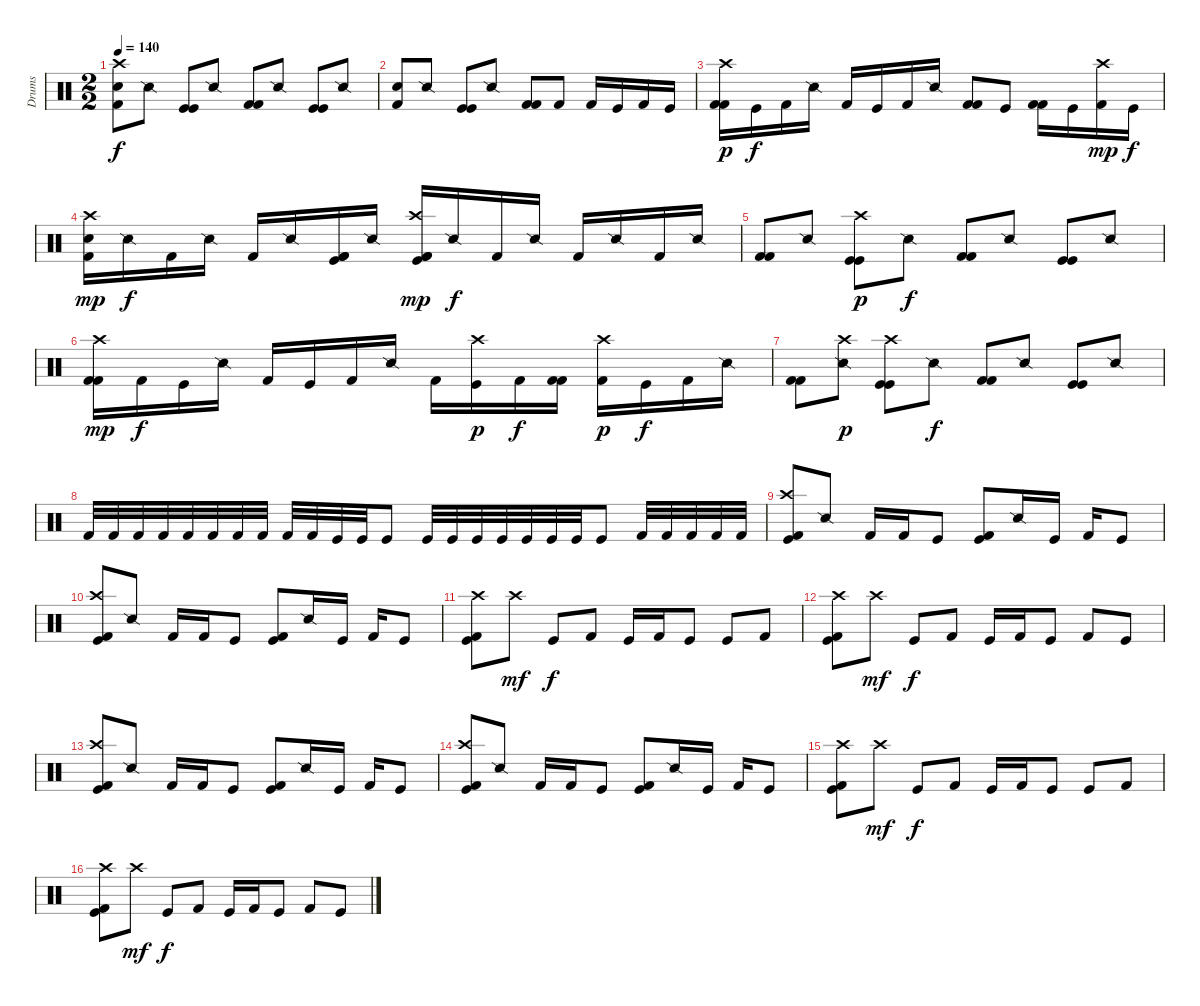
\track ("Drums" "Drums") {instrument percussion}
\staff {score}
\articulation defaults
\ts (2 2)
\tempo 140
\clef neutral
\ks c
("Kick (hit) 2" "Snare (hit) 2" "Crash high (hit)").8{dy f} "Snare (side stick) 2".8 ("Kick (hit)" "Kick (hit)").8 "Snare (side stick) 2".8 ("Kick (hit) 2" "Kick (hit) 2").8 "Snare (side stick) 2".8 ("Kick (hit)" "Kick (hit)").8 "Snare (side stick) 2".8 |
("Kick (hit) 2" "Snare (hit) 2").8 "Snare (side stick) 2".8 ("Kick (hit)" "Kick (hit)").8 "Snare (side stick) 2".8 ("Kick (hit) 2" "Kick (hit) 2").8 "Kick (hit) 2".8 "Kick (hit) 2".16 "Kick (hit)".16 "Kick (hit) 2".16 "Kick (hit)".16 |
("Kick (hit) 2" "Kick (hit) 2" "Crash high (hit)").16{dy p} "Kick (hit)".16{dy f} "Kick (hit) 2".16 "Snare (side stick) 2".16 "Kick (hit) 2".16 "Kick (hit)".16 "Kick (hit) 2".16 "Snare (side stick) 2".16 ("Kick (hit) 2" "Kick (hit) 2").8 "Kick (hit)".8 ("Kick (hit) 2" "Kick (hit) 2").16 "Kick (hit)".16 ("Kick (hit) 2" "Crash high (hit)").16{dy mp} "Kick (hit)".16{dy f} |
("Kick (hit) 2" "Snare (hit) 2" "Crash high (hit)").16{dy mp} "Snare (side stick) 2".16{dy f} "Kick (hit) 2".16 "Snare (side stick) 2".16 "Kick (hit) 2".16 "Snare (side stick) 2".16 ("Kick (hit) 2" "Kick (hit) 2" "Kick (hit)").16 "Snare (side stick) 2".16 ("Kick (hit) 2" "Kick (hit) 2" "Kick (hit)" "Crash high (hit)").16{dy mp} "Snare (side stick) 2".16{dy f} "Kick (hit) 2".16 "Snare (side stick) 2".16 "Kick (hit) 2".16 "Snare (side stick) 2".16 "Kick (hit) 2".16 "Snare (side stick) 2".16 |
("Kick (hit) 2" "Kick (hit) 2").8 "Snare (side stick) 2".8 ("Kick (hit)" "Kick (hit)" "Crash high (hit)").8{dy p} "Snare (side stick) 2".8{dy f} ("Kick (hit) 2" "Kick (hit) 2").8 "Snare (side stick) 2".8 ("Kick (hit)" "Kick (hit)").8 "Snare (side stick) 2".8 |
("Kick (hit) 2" "Kick (hit) 2" "Crash high (hit)").16{dy mp} "Kick (hit) 2".16{dy f} "Kick (hit)".16 "Snare (side stick) 2".16 "Kick (hit) 2".16 "Kick (hit)".16 "Kick (hit) 2".16 "Snare (side stick) 2".16 "Kick (hit) 2".16 ("Kick (hit)" "Crash high (hit)").16{dy p} "Kick (hit) 2".16{dy f} ("Kick (hit) 2" "Kick (hit) 2").16 ("Kick (hit) 2" "Crash high (hit)").16{dy p} "Kick (hit)".16{dy f} "Kick (hit) 2".16 "Snare (side stick) 2".16 |
("Kick (hit) 2" "Kick (hit) 2").8 ("Snare (side stick) 2" "Crash high (hit)").8{dy p} ("Kick (hit)" "Kick (hit)" "Crash high (hit)").8 "Snare (side stick) 2".8{dy f} ("Kick (hit) 2" "Kick (hit) 2").8 "Snare (side stick) 2".8 ("Kick (hit)" "Kick (hit)").8 "Snare (side stick) 2".8 |
"Kick (hit) 2".32 "Kick (hit) 2".32 "Kick (hit) 2".32 "Kick (hit) 2".32 "Kick (hit) 2".32 "Kick (hit) 2".32 "Kick (hit) 2".32 "Kick (hit) 2".32 "Kick (hit) 2".32 "Kick (hit) 2".32 "Kick (hit)".32 "Kick (hit)".32 "Kick (hit)".8 "Kick (hit)".32 "Kick (hit)".32 "Kick (hit)".32 "Kick (hit)".32 "Kick (hit)".32 "Kick (hit)".32 "Kick (hit)".32 "Kick (hit)".8 "Kick (hit) 2".32 "Kick (hit) 2".32 "Kick (hit) 2".32 "Kick (hit) 2".32 "Kick (hit) 2".32 |
("Kick (hit) 2" "Kick (hit)" "Crash high (hit)").8 "Snare (side stick) 2".8 "Kick (hit) 2".16 "Kick (hit) 2".16 "Kick (hit)".8 ("Kick (hit) 2" "Kick (hit)").8 "Snare (side stick) 2".16 "Kick (hit)".16 "Kick (hit) 2".16 "Kick (hit)".8 |
("Kick (hit) 2" "Kick (hit)" "Crash high (hit)").8 "Snare (side stick) 2".8 "Kick (hit) 2".16 "Kick (hit) 2".16 "Kick (hit)".8 ("Kick (hit) 2" "Kick (hit)").8 "Snare (side stick) 2".16 "Kick (hit)".16 "Kick (hit) 2".16 "Kick (hit)".8 |
("Kick (hit) 2" "Kick (hit)" "Crash high (hit)").8 "Crash high (hit)".8{dy mf} "Kick (hit)".8{dy f} "Kick (hit) 2".8 "Kick (hit)".16 "Kick (hit) 2".16 "Kick (hit)".8 "Kick (hit)".8 "Kick (hit) 2".8 |
("Kick (hit) 2" "Kick (hit)" "Crash high (hit)").8 "Crash high (hit)".8{dy mf} "Kick (hit)".8{dy f} "Kick (hit) 2".8 "Kick (hit)".16 "Kick (hit) 2".16 "Kick (hit)".8 "Kick (hit) 2".8 "Kick (hit)".8 |
("Kick (hit) 2" "Kick (hit)" "Crash high (hit)").8 "Snare (side stick) 2".8 "Kick (hit) 2".16 "Kick (hit) 2".16 "Kick (hit)".8 ("Kick (hit) 2" "Kick (hit)").8 "Snare (side stick) 2".16 "Kick (hit)".16 "Kick (hit) 2".16 "Kick (hit)".8 |
("Kick (hit) 2" "Kick (hit)" "Crash high (hit)").8 "Snare (side stick) 2".8 "Kick (hit) 2".16 "Kick (hit) 2".16 "Kick (hit)".8 ("Kick (hit) 2" "Kick (hit)").8 "Snare (side stick) 2".16 "Kick (hit)".16 "Kick (hit) 2".16 "Kick (hit)".8 |
("Kick (hit) 2" "Kick (hit)" "Crash high (hit)").8 "Crash high (hit)".8{dy mf} "Kick (hit)".8{dy f} "Kick (hit) 2".8 "Kick (hit)".16 "Kick (hit) 2".16 "Kick (hit)".8 "Kick (hit)".8 "Kick (hit) 2".8 |
("Kick (hit) 2" "Kick (hit)" "Crash high (hit)").8 "Crash high (hit)".8{dy mf} "Kick (hit)".8{dy f} "Kick (hit) 2".8 "Kick (hit)".16 "Kick (hit) 2".16 "Kick (hit)".8 "Kick (hit) 2".8 "Kick (hit)".8
